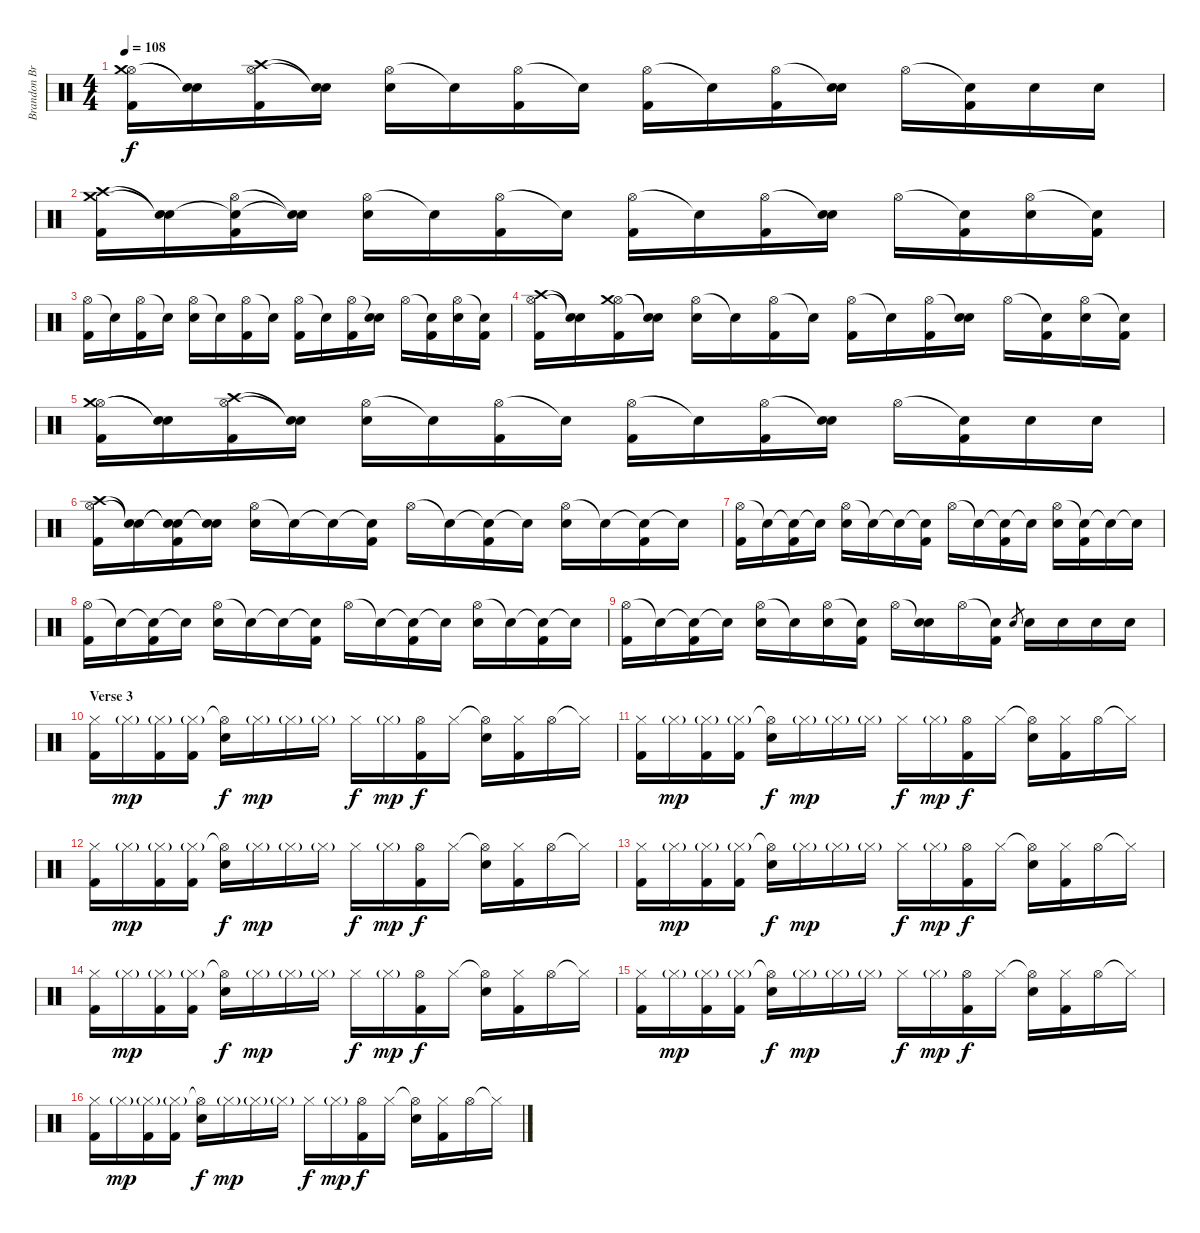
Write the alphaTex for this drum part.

\track ("Brandon Brown (Drums)" "Brandon Br") {instrument percussion}
\staff {score}
\articulation defaults
\ts (4 4)
\tempo 108
\clef neutral
\ks c
("Hi-Hat (open)" "Crash medium (hit)" "Kick (hit) 2").16{dy f} ("Snare (hit)"{t} "Snare (hit)"{t}).16 ("Hi-Hat (open)" "Crash high (hit)" "Kick (hit) 2").16 ("Snare (hit)"{t} "Snare (hit)"{t}).16 ("Hi-Hat (open)" "Electric Snare (hit)").16 "Snare (hit)"{t}.16 ("Hi-Hat (open)" "Kick (hit) 2").16 "Snare (hit)"{t}.16 ("Hi-Hat (open)" "Kick (hit) 2").16 "Snare (hit)"{t}.16 ("Hi-Hat (open)" "Kick (hit) 2").16 ("Snare (hit)"{t} "Electric Snare (hit)").16 "Hi-Hat (open)".16 ("Snare (hit)"{t} "Kick (hit) 2").16 "Electric Snare (hit)".16 "Electric Snare (hit)".16 |
("Crash medium (hit)" "Crash high (hit)" "Kick (hit) 2").16 ("Snare (hit)"{t} "Snare (hit)"{t}).16 ("Hi-Hat (open)" "Snare (hit)"{t} "Kick (hit) 2").16 ("Snare (hit)"{t} "Snare (hit)"{t}).16 ("Hi-Hat (open)" "Electric Snare (hit)").16 "Snare (hit)"{t}.16 ("Hi-Hat (open)" "Kick (hit) 2").16 "Snare (hit)"{t}.16 ("Hi-Hat (open)" "Kick (hit) 2").16 "Snare (hit)"{t}.16 ("Hi-Hat (open)" "Kick (hit) 2").16 ("Snare (hit)"{t} "Electric Snare (hit)").16 "Hi-Hat (open)".16 ("Snare (hit)"{t} "Kick (hit) 2").16 ("Hi-Hat (open)" "Electric Snare (hit)").16 ("Snare (hit)"{t} "Kick (hit) 2").16 |
("Hi-Hat (open)" "Kick (hit) 2").16 "Snare (hit)"{t}.16 ("Hi-Hat (open)" "Kick (hit) 2").16 "Snare (hit)"{t}.16 ("Hi-Hat (open)" "Electric Snare (hit)").16 "Snare (hit)"{t}.16 ("Hi-Hat (open)" "Kick (hit) 2").16 "Snare (hit)"{t}.16 ("Hi-Hat (open)" "Kick (hit) 2").16 "Snare (hit)"{t}.16 ("Hi-Hat (open)" "Kick (hit) 2").16 ("Snare (hit)"{t} "Electric Snare (hit)").16 "Hi-Hat (open)".16 ("Snare (hit)"{t} "Kick (hit) 2").16 ("Hi-Hat (open)" "Electric Snare (hit)").16 ("Snare (hit)"{t} "Kick (hit) 2").16 |
("Hi-Hat (open)" "Crash high (hit)" "Kick (hit) 2").16 ("Snare (hit)"{t} "Snare (hit)"{t}).16 ("Hi-Hat (open)" "Crash medium (hit)" "Kick (hit) 2").16 ("Snare (hit)"{t} "Snare (hit)"{t}).16 ("Hi-Hat (open)" "Electric Snare (hit)").16 "Snare (hit)"{t}.16 ("Hi-Hat (open)" "Kick (hit) 2").16 "Snare (hit)"{t}.16 ("Hi-Hat (open)" "Kick (hit) 2").16 "Snare (hit)"{t}.16 ("Hi-Hat (open)" "Kick (hit) 2").16 ("Snare (hit)"{t} "Electric Snare (hit)").16 "Hi-Hat (open)".16 ("Snare (hit)"{t} "Kick (hit) 2").16 ("Hi-Hat (open)" "Electric Snare (hit)").16 ("Snare (hit)"{t} "Kick (hit) 2").16 |
("Hi-Hat (open)" "Crash medium (hit)" "Kick (hit) 2").16 ("Snare (hit)"{t} "Snare (hit)"{t}).16 ("Hi-Hat (open)" "Crash high (hit)" "Kick (hit) 2").16 ("Snare (hit)"{t} "Snare (hit)"{t}).16 ("Hi-Hat (open)" "Electric Snare (hit)").16 "Snare (hit)"{t}.16 ("Hi-Hat (open)" "Kick (hit) 2").16 "Snare (hit)"{t}.16 ("Hi-Hat (open)" "Kick (hit) 2").16 "Snare (hit)"{t}.16 ("Hi-Hat (open)" "Kick (hit) 2").16 ("Snare (hit)"{t} "Electric Snare (hit)").16 "Hi-Hat (open)".16 ("Snare (hit)"{t} "Kick (hit) 2").16 "Electric Snare (hit)".16 "Electric Snare (hit)".16 |
("Hi-Hat (open)" "Crash high (hit)" "Kick (hit) 2").16 ("Snare (hit)"{t} "Snare (hit)"{t}).16 ("Snare (hit)"{t} "Snare (hit)"{t} "Kick (hit) 2").16 ("Snare (hit)"{t} "Snare (hit)"{t}).16 ("Hi-Hat (open)" "Electric Snare (hit)").16 "Snare (hit)"{t}.16 "Snare (hit)"{t}.16 ("Snare (hit)"{t} "Kick (hit) 2").16 "Hi-Hat (open)".16 "Snare (hit)"{t}.16 ("Snare (hit)"{t} "Kick (hit) 2").16 "Snare (hit)"{t}.16 ("Hi-Hat (open)" "Electric Snare (hit)").16 "Snare (hit)"{t}.16 ("Snare (hit)"{t} "Kick (hit) 2").16 "Snare (hit)"{t}.16 |
("Hi-Hat (open)" "Kick (hit) 2").16 "Snare (hit)"{t}.16 ("Snare (hit)"{t} "Kick (hit) 2").16 "Snare (hit)"{t}.16 ("Hi-Hat (open)" "Electric Snare (hit)").16 "Snare (hit)"{t}.16 "Snare (hit)"{t}.16 ("Snare (hit)"{t} "Kick (hit) 2").16 "Hi-Hat (open)".16 "Snare (hit)"{t}.16 ("Snare (hit)"{t} "Kick (hit) 2").16 "Snare (hit)"{t}.16 ("Hi-Hat (open)" "Electric Snare (hit)").16 ("Snare (hit)"{t} "Kick (hit) 2").16 "Snare (hit)"{t}.16 "Snare (hit)"{t}.16 |
("Hi-Hat (open)" "Kick (hit) 2").16 "Snare (hit)"{t}.16 ("Snare (hit)"{t} "Kick (hit) 2").16 "Snare (hit)"{t}.16 ("Hi-Hat (open)" "Electric Snare (hit)").16 "Snare (hit)"{t}.16 "Snare (hit)"{t}.16 ("Snare (hit)"{t} "Kick (hit) 2").16 "Hi-Hat (open)".16 "Snare (hit)"{t}.16 ("Snare (hit)"{t} "Kick (hit) 2").16 "Snare (hit)"{t}.16 ("Hi-Hat (open)" "Electric Snare (hit)").16 "Snare (hit)"{t}.16 ("Snare (hit)"{t} "Kick (hit) 2").16 "Snare (hit)"{t}.16 |
("Hi-Hat (open)" "Kick (hit) 2").16 "Snare (hit)"{t}.16 ("Snare (hit)"{t} "Kick (hit) 2").16 "Snare (hit)"{t}.16 ("Hi-Hat (open)" "Electric Snare (hit)").16 "Snare (hit)"{t}.16 ("Hi-Hat (open)" "Electric Snare (hit)").16 ("Snare (hit)"{t} "Kick (hit) 2").16 "Hi-Hat (open)".16 ("Snare (hit)"{t} "Electric Snare (hit)").16 "Hi-Hat (open)".16 ("Snare (hit)"{t} "Kick (hit) 2").16 "Electric Snare (hit)".8{gr} "Electric Snare (hit)".16 "Electric Snare (hit)".16 "Electric Snare (hit)".16 "Electric Snare (hit)".16 |
\section ("" "Verse 3")
("Hi-Hat (closed)" "Kick (hit) 2").16 "Hi-Hat (closed)"{g}.16{dy mp} ("Hi-Hat (closed)"{g} "Kick (hit) 2").16 ("Hi-Hat (closed)"{g} "Kick (hit) 2").16 ("Hi-Hat (open)"{t} "Electric Snare (hit)").16{dy f} "Hi-Hat (closed)"{g}.16{dy mp} "Hi-Hat (closed)"{g}.16 "Hi-Hat (closed)"{g}.16 "Hi-Hat (closed)".16{dy f} "Hi-Hat (closed)"{g}.16{dy mp} ("Hi-Hat (open)" "Kick (hit) 2").16{dy f} "Hi-Hat (closed)".16 ("Hi-Hat (open)"{t} "Electric Snare (hit)").16 ("Hi-Hat (closed)" "Kick (hit) 2").16 "Hi-Hat (open)".16 "Hi-Hat (closed)"{t}.16 |
("Hi-Hat (closed)" "Kick (hit) 2").16 "Hi-Hat (closed)"{g}.16{dy mp} ("Hi-Hat (closed)"{g} "Kick (hit) 2").16 ("Hi-Hat (closed)"{g} "Kick (hit) 2").16 ("Hi-Hat (open)"{t} "Electric Snare (hit)").16{dy f} "Hi-Hat (closed)"{g}.16{dy mp} "Hi-Hat (closed)"{g}.16 "Hi-Hat (closed)"{g}.16 "Hi-Hat (closed)".16{dy f} "Hi-Hat (closed)"{g}.16{dy mp} ("Hi-Hat (open)" "Kick (hit) 2").16{dy f} "Hi-Hat (closed)".16 ("Hi-Hat (open)"{t} "Electric Snare (hit)").16 ("Hi-Hat (closed)" "Kick (hit) 2").16 "Hi-Hat (open)".16 "Hi-Hat (closed)"{t}.16 |
("Hi-Hat (closed)" "Kick (hit) 2").16 "Hi-Hat (closed)"{g}.16{dy mp} ("Hi-Hat (closed)"{g} "Kick (hit) 2").16 ("Hi-Hat (closed)"{g} "Kick (hit) 2").16 ("Hi-Hat (open)"{t} "Electric Snare (hit)").16{dy f} "Hi-Hat (closed)"{g}.16{dy mp} "Hi-Hat (closed)"{g}.16 "Hi-Hat (closed)"{g}.16 "Hi-Hat (closed)".16{dy f} "Hi-Hat (closed)"{g}.16{dy mp} ("Hi-Hat (open)" "Kick (hit) 2").16{dy f} "Hi-Hat (closed)".16 ("Hi-Hat (open)"{t} "Electric Snare (hit)").16 ("Hi-Hat (closed)" "Kick (hit) 2").16 "Hi-Hat (open)".16 "Hi-Hat (closed)"{t}.16 |
("Hi-Hat (closed)" "Kick (hit) 2").16 "Hi-Hat (closed)"{g}.16{dy mp} ("Hi-Hat (closed)"{g} "Kick (hit) 2").16 ("Hi-Hat (closed)"{g} "Kick (hit) 2").16 ("Hi-Hat (open)"{t} "Electric Snare (hit)").16{dy f} "Hi-Hat (closed)"{g}.16{dy mp} "Hi-Hat (closed)"{g}.16 "Hi-Hat (closed)"{g}.16 "Hi-Hat (closed)".16{dy f} "Hi-Hat (closed)"{g}.16{dy mp} ("Hi-Hat (open)" "Kick (hit) 2").16{dy f} "Hi-Hat (closed)".16 ("Hi-Hat (open)"{t} "Electric Snare (hit)").16 ("Hi-Hat (closed)" "Kick (hit) 2").16 "Hi-Hat (open)".16 "Hi-Hat (closed)"{t}.16 |
("Hi-Hat (closed)" "Kick (hit) 2").16 "Hi-Hat (closed)"{g}.16{dy mp} ("Hi-Hat (closed)"{g} "Kick (hit) 2").16 ("Hi-Hat (closed)"{g} "Kick (hit) 2").16 ("Hi-Hat (open)"{t} "Electric Snare (hit)").16{dy f} "Hi-Hat (closed)"{g}.16{dy mp} "Hi-Hat (closed)"{g}.16 "Hi-Hat (closed)"{g}.16 "Hi-Hat (closed)".16{dy f} "Hi-Hat (closed)"{g}.16{dy mp} ("Hi-Hat (open)" "Kick (hit) 2").16{dy f} "Hi-Hat (closed)".16 ("Hi-Hat (open)"{t} "Electric Snare (hit)").16 ("Hi-Hat (closed)" "Kick (hit) 2").16 "Hi-Hat (open)".16 "Hi-Hat (closed)"{t}.16 |
("Hi-Hat (closed)" "Kick (hit) 2").16 "Hi-Hat (closed)"{g}.16{dy mp} ("Hi-Hat (closed)"{g} "Kick (hit) 2").16 ("Hi-Hat (closed)"{g} "Kick (hit) 2").16 ("Hi-Hat (open)"{t} "Electric Snare (hit)").16{dy f} "Hi-Hat (closed)"{g}.16{dy mp} "Hi-Hat (closed)"{g}.16 "Hi-Hat (closed)"{g}.16 "Hi-Hat (closed)".16{dy f} "Hi-Hat (closed)"{g}.16{dy mp} ("Hi-Hat (open)" "Kick (hit) 2").16{dy f} "Hi-Hat (closed)".16 ("Hi-Hat (open)"{t} "Electric Snare (hit)").16 ("Hi-Hat (closed)" "Kick (hit) 2").16 "Hi-Hat (open)".16 "Hi-Hat (closed)"{t}.16 |
("Hi-Hat (closed)" "Kick (hit) 2").16 "Hi-Hat (closed)"{g}.16{dy mp} ("Hi-Hat (closed)"{g} "Kick (hit) 2").16 ("Hi-Hat (closed)"{g} "Kick (hit) 2").16 ("Hi-Hat (open)"{t} "Electric Snare (hit)").16{dy f} "Hi-Hat (closed)"{g}.16{dy mp} "Hi-Hat (closed)"{g}.16 "Hi-Hat (closed)"{g}.16 "Hi-Hat (closed)".16{dy f} "Hi-Hat (closed)"{g}.16{dy mp} ("Hi-Hat (open)" "Kick (hit) 2").16{dy f} "Hi-Hat (closed)".16 ("Hi-Hat (open)"{t} "Electric Snare (hit)").16 ("Hi-Hat (closed)" "Kick (hit) 2").16 "Hi-Hat (open)".16 "Hi-Hat (closed)"{t}.16
